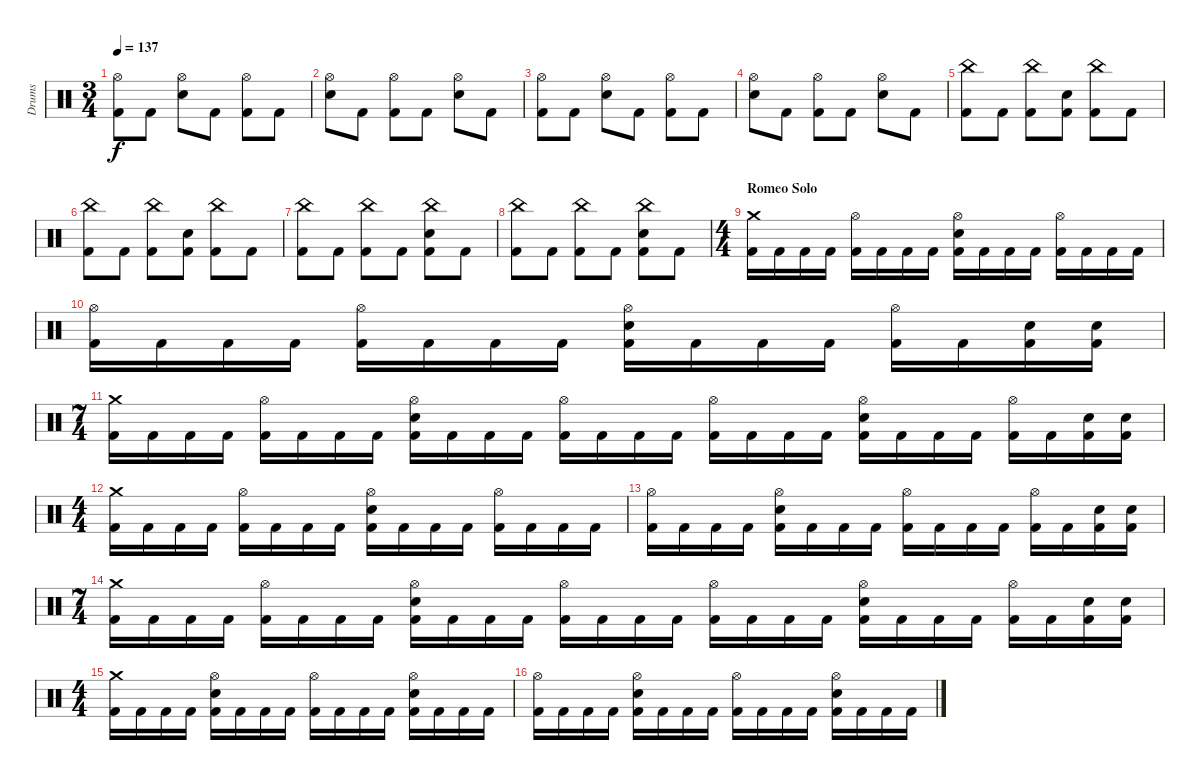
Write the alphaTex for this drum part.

\track ("Drums" "Drums") {instrument percussion}
\staff {score}
\articulation defaults
\ts (3 4)
\tempo 137
\clef neutral
\ks c
("Hi-Hat (open)" "Kick (hit) 2").8{dy f} "Kick (hit) 2".8 ("Electric Snare (hit)" "Hi-Hat (open)").8 "Kick (hit) 2".8 ("Kick (hit) 2" "Hi-Hat (open)").8 "Kick (hit) 2".8 |
("Electric Snare (hit)" "Hi-Hat (open)").8 "Kick (hit) 2".8 ("Hi-Hat (open)" "Kick (hit) 2").8 "Kick (hit) 2".8 ("Hi-Hat (open)" "Electric Snare (hit)").8 "Kick (hit) 2".8 |
("Hi-Hat (open)" "Kick (hit) 2").8 "Kick (hit) 2".8 ("Hi-Hat (open)" "Electric Snare (hit)").8 "Kick (hit) 2".8 ("Hi-Hat (open)" "Kick (hit) 2").8 "Kick (hit) 2".8 |
("Hi-Hat (open)" "Electric Snare (hit)").8 "Kick (hit) 2".8 ("Hi-Hat (open)" "Kick (hit) 2").8 "Kick (hit) 2".8 ("Hi-Hat (open)" "Electric Snare (hit)").8 "Kick (hit) 2".8 |
("China (hit)" "Kick (hit) 2").8 "Kick (hit) 2".8 ("China (hit)" "Kick (hit) 2").8 ("Electric Snare (hit)" "Kick (hit) 2").8 ("China (hit)" "Kick (hit) 2").8 "Kick (hit) 2".8 |
("China (hit)" "Kick (hit) 2").8 "Kick (hit) 2".8 ("Kick (hit) 2" "China (hit)").8 ("Electric Snare (hit)" "Kick (hit) 2").8 ("Kick (hit) 2" "China (hit)").8 "Kick (hit) 2".8 |
("Kick (hit) 2" "China (hit)").8 "Kick (hit) 2".8 ("Kick (hit) 2" "China (hit)").8 "Kick (hit) 2".8 ("China (hit)" "Kick (hit) 2" "Electric Snare (hit)").8 "Kick (hit) 2".8 |
("China (hit)" "Kick (hit) 2").8 "Kick (hit) 2".8 ("China (hit)" "Kick (hit) 2").8 "Kick (hit) 2".8 ("Electric Snare (hit)" "China (hit)" "Kick (hit) 2").8 "Kick (hit) 2".8 |
\ts (4 4)
\section ("" "Romeo Solo")
("Crash medium (hit)" "Kick (hit) 2").16 "Kick (hit) 2".16 "Kick (hit) 2".16 "Kick (hit) 2".16 ("Hi-Hat (open)" "Kick (hit) 2").16 "Kick (hit) 2".16 "Kick (hit) 2".16 "Kick (hit) 2".16 ("Electric Snare (hit)" "Hi-Hat (open)" "Kick (hit) 2").16 "Kick (hit) 2".16 "Kick (hit) 2".16 "Kick (hit) 2".16 ("Hi-Hat (open)" "Kick (hit) 2").16 "Kick (hit) 2".16 "Kick (hit) 2".16 "Kick (hit) 2".16 |
("Hi-Hat (open)" "Kick (hit) 2").16 "Kick (hit) 2".16 "Kick (hit) 2".16 "Kick (hit) 2".16 ("Hi-Hat (open)" "Kick (hit) 2").16 "Kick (hit) 2".16 "Kick (hit) 2".16 "Kick (hit) 2".16 ("Electric Snare (hit)" "Hi-Hat (open)" "Kick (hit) 2").16 "Kick (hit) 2".16 "Kick (hit) 2".16 "Kick (hit) 2".16 ("Hi-Hat (open)" "Kick (hit) 2").16 "Kick (hit) 2".16 ("Electric Snare (hit)" "Kick (hit) 2").16 ("Electric Snare (hit)" "Kick (hit) 2").16 |
\ts (7 4)
("Crash medium (hit)" "Kick (hit) 2").16 "Kick (hit) 2".16 "Kick (hit) 2".16 "Kick (hit) 2".16 ("Hi-Hat (open)" "Kick (hit) 2").16 "Kick (hit) 2".16 "Kick (hit) 2".16 "Kick (hit) 2".16 ("Electric Snare (hit)" "Hi-Hat (open)" "Kick (hit) 2").16 "Kick (hit) 2".16 "Kick (hit) 2".16 "Kick (hit) 2".16 ("Hi-Hat (open)" "Kick (hit) 2").16 "Kick (hit) 2".16 "Kick (hit) 2".16 "Kick (hit) 2".16 ("Hi-Hat (open)" "Kick (hit) 2").16 "Kick (hit) 2".16 "Kick (hit) 2".16 "Kick (hit) 2".16 ("Electric Snare (hit)" "Hi-Hat (open)" "Kick (hit) 2").16 "Kick (hit) 2".16 "Kick (hit) 2".16 "Kick (hit) 2".16 ("Hi-Hat (open)" "Kick (hit) 2").16 "Kick (hit) 2".16 ("Electric Snare (hit)" "Kick (hit) 2").16 ("Electric Snare (hit)" "Kick (hit) 2").16 |
\ts (4 4)
("Crash medium (hit)" "Kick (hit) 2").16 "Kick (hit) 2".16 "Kick (hit) 2".16 "Kick (hit) 2".16 ("Hi-Hat (open)" "Kick (hit) 2").16 "Kick (hit) 2".16 "Kick (hit) 2".16 "Kick (hit) 2".16 ("Electric Snare (hit)" "Hi-Hat (open)" "Kick (hit) 2").16 "Kick (hit) 2".16 "Kick (hit) 2".16 "Kick (hit) 2".16 ("Hi-Hat (open)" "Kick (hit) 2").16 "Kick (hit) 2".16 "Kick (hit) 2".16 "Kick (hit) 2".16 |
("Hi-Hat (open)" "Kick (hit) 2").16 "Kick (hit) 2".16 "Kick (hit) 2".16 "Kick (hit) 2".16 ("Electric Snare (hit)" "Hi-Hat (open)" "Kick (hit) 2").16 "Kick (hit) 2".16 "Kick (hit) 2".16 "Kick (hit) 2".16 ("Hi-Hat (open)" "Kick (hit) 2").16 "Kick (hit) 2".16 "Kick (hit) 2".16 "Kick (hit) 2".16 ("Hi-Hat (open)" "Kick (hit) 2").16 "Kick (hit) 2".16 ("Electric Snare (hit)" "Kick (hit) 2").16 ("Electric Snare (hit)" "Kick (hit) 2").16 |
\ts (7 4)
("Crash medium (hit)" "Kick (hit) 2").16 "Kick (hit) 2".16 "Kick (hit) 2".16 "Kick (hit) 2".16 ("Hi-Hat (open)" "Kick (hit) 2").16 "Kick (hit) 2".16 "Kick (hit) 2".16 "Kick (hit) 2".16 ("Electric Snare (hit)" "Hi-Hat (open)" "Kick (hit) 2").16 "Kick (hit) 2".16 "Kick (hit) 2".16 "Kick (hit) 2".16 ("Hi-Hat (open)" "Kick (hit) 2").16 "Kick (hit) 2".16 "Kick (hit) 2".16 "Kick (hit) 2".16 ("Hi-Hat (open)" "Kick (hit) 2").16 "Kick (hit) 2".16 "Kick (hit) 2".16 "Kick (hit) 2".16 ("Electric Snare (hit)" "Hi-Hat (open)" "Kick (hit) 2").16 "Kick (hit) 2".16 "Kick (hit) 2".16 "Kick (hit) 2".16 ("Hi-Hat (open)" "Kick (hit) 2").16 "Kick (hit) 2".16 ("Electric Snare (hit)" "Kick (hit) 2").16 ("Electric Snare (hit)" "Kick (hit) 2").16 |
\ts (4 4)
("Crash medium (hit)" "Kick (hit) 2").16 "Kick (hit) 2".16 "Kick (hit) 2".16 "Kick (hit) 2".16 ("Electric Snare (hit)" "Hi-Hat (open)" "Kick (hit) 2").16 "Kick (hit) 2".16 "Kick (hit) 2".16 "Kick (hit) 2".16 ("Hi-Hat (open)" "Kick (hit) 2").16 "Kick (hit) 2".16 "Kick (hit) 2".16 "Kick (hit) 2".16 ("Electric Snare (hit)" "Hi-Hat (open)" "Kick (hit) 2").16 "Kick (hit) 2".16 "Kick (hit) 2".16 "Kick (hit) 2".16 |
("Hi-Hat (open)" "Kick (hit) 2").16 "Kick (hit) 2".16 "Kick (hit) 2".16 "Kick (hit) 2".16 ("Electric Snare (hit)" "Hi-Hat (open)" "Kick (hit) 2").16 "Kick (hit) 2".16 "Kick (hit) 2".16 "Kick (hit) 2".16 ("Hi-Hat (open)" "Kick (hit) 2").16 "Kick (hit) 2".16 "Kick (hit) 2".16 "Kick (hit) 2".16 ("Electric Snare (hit)" "Hi-Hat (open)" "Kick (hit) 2").16 "Kick (hit) 2".16 "Kick (hit) 2".16 "Kick (hit) 2".16
